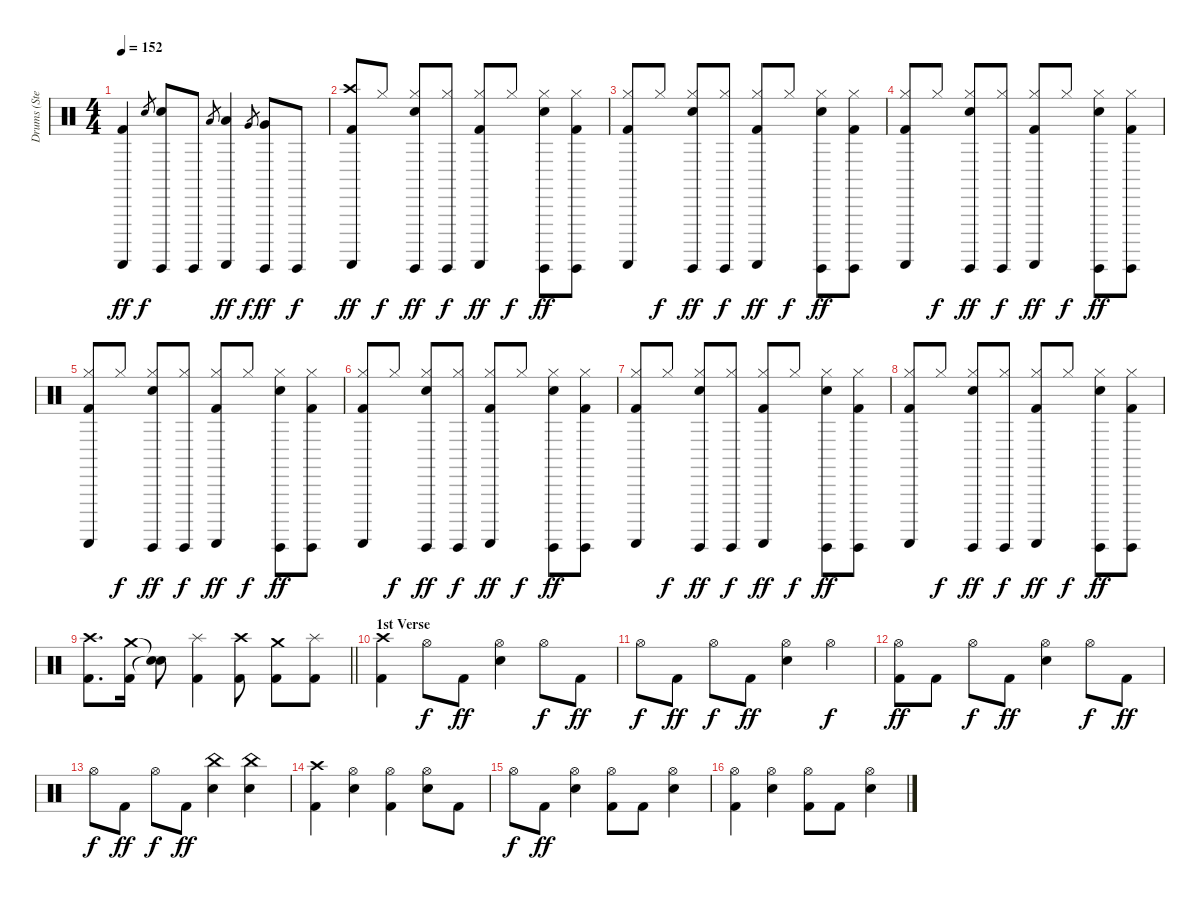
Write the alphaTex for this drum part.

\track ("Drums (Steven)" "Drums (Ste") {instrument percussion}
\staff {score}
\articulation defaults
\ts (4 4)
\tempo 152
\clef neutral
\ks c
("Guiro (scrap-return)" "Kick (hit) 2").4{dy ff} "Snare (hit) 2".8{gr dy f} ("Guiro (hit)" "Snare (hit) 2").8 "Guiro (hit)".8 "Low Tom (hit)".8{gr} ("Guiro (scrap-return)" "Low Tom (hit)").4{dy ff} "Very Low Tom (hit)".8{gr dy f} ("Guiro (hit)" "Very Low Tom (hit)").8{dy ff} "Guiro (hit)".8{dy f} |
("Crash high (hit)" "Guiro (scrap-return)" "Kick (hit) 2").8{dy ff} "Hi-Hat (closed)".8{dy f} ("Hi-Hat (closed)" "Guiro (hit)" "Snare (hit) 2").8{dy ff} ("Hi-Hat (closed)" "Guiro (hit)").8{dy f} ("Hi-Hat (closed)" "Guiro (scrap-return)" "Kick (hit) 2").8{dy ff} "Hi-Hat (closed)".8{dy f} ("Hi-Hat (closed)" "Guiro (hit)" "Snare (hit) 2").8{dy ff} ("Hi-Hat (closed)" "Guiro (hit)" "Kick (hit) 2").8 |
("Hi-Hat (closed)" "Guiro (scrap-return)" "Kick (hit) 2").8 "Hi-Hat (closed)".8{dy f} ("Hi-Hat (closed)" "Guiro (hit)" "Snare (hit) 2").8{dy ff} ("Hi-Hat (closed)" "Guiro (hit)").8{dy f} ("Hi-Hat (closed)" "Guiro (scrap-return)" "Kick (hit) 2").8{dy ff} "Hi-Hat (closed)".8{dy f} ("Hi-Hat (closed)" "Guiro (hit)" "Snare (hit) 2").8{dy ff} ("Hi-Hat (closed)" "Guiro (hit)" "Kick (hit) 2").8 |
("Hi-Hat (closed)" "Guiro (scrap-return)" "Kick (hit) 2").8 "Hi-Hat (closed)".8{dy f} ("Hi-Hat (closed)" "Guiro (hit)" "Snare (hit) 2").8{dy ff} ("Hi-Hat (closed)" "Guiro (hit)").8{dy f} ("Hi-Hat (closed)" "Guiro (scrap-return)" "Kick (hit) 2").8{dy ff} "Hi-Hat (closed)".8{dy f} ("Hi-Hat (closed)" "Guiro (hit)" "Snare (hit) 2").8{dy ff} ("Hi-Hat (closed)" "Guiro (hit)" "Kick (hit) 2").8 |
("Hi-Hat (closed)" "Guiro (scrap-return)" "Kick (hit) 2").8 "Hi-Hat (closed)".8{dy f} ("Hi-Hat (closed)" "Guiro (hit)" "Snare (hit) 2").8{dy ff} ("Hi-Hat (closed)" "Guiro (hit)").8{dy f} ("Hi-Hat (closed)" "Guiro (scrap-return)" "Kick (hit) 2").8{dy ff} "Hi-Hat (closed)".8{dy f} ("Hi-Hat (closed)" "Guiro (hit)" "Snare (hit) 2").8{dy ff} ("Hi-Hat (closed)" "Guiro (hit)" "Kick (hit) 2").8 |
("Hi-Hat (closed)" "Guiro (scrap-return)" "Kick (hit) 2").8 "Hi-Hat (closed)".8{dy f} ("Hi-Hat (closed)" "Guiro (hit)" "Snare (hit) 2").8{dy ff} ("Hi-Hat (closed)" "Guiro (hit)").8{dy f} ("Hi-Hat (closed)" "Guiro (scrap-return)" "Kick (hit) 2").8{dy ff} "Hi-Hat (closed)".8{dy f} ("Hi-Hat (closed)" "Guiro (hit)" "Snare (hit) 2").8{dy ff} ("Hi-Hat (closed)" "Guiro (hit)" "Kick (hit) 2").8 |
("Hi-Hat (closed)" "Guiro (scrap-return)" "Kick (hit) 2").8 "Hi-Hat (closed)".8{dy f} ("Hi-Hat (closed)" "Guiro (hit)" "Snare (hit) 2").8{dy ff} ("Hi-Hat (closed)" "Guiro (hit)").8{dy f} ("Hi-Hat (closed)" "Guiro (scrap-return)" "Kick (hit) 2").8{dy ff} "Hi-Hat (closed)".8{dy f} ("Hi-Hat (closed)" "Guiro (hit)" "Snare (hit) 2").8{dy ff} ("Hi-Hat (closed)" "Guiro (hit)" "Kick (hit) 2").8 |
("Hi-Hat (closed)" "Guiro (scrap-return)" "Kick (hit) 2").8 "Hi-Hat (closed)".8{dy f} ("Hi-Hat (closed)" "Guiro (hit)" "Snare (hit) 2").8{dy ff} ("Hi-Hat (closed)" "Guiro (hit)").8{dy f} ("Hi-Hat (closed)" "Guiro (scrap-return)" "Kick (hit) 2").8{dy ff} "Hi-Hat (closed)".8{dy f} ("Hi-Hat (closed)" "Guiro (hit)" "Snare (hit) 2").8{dy ff} ("Hi-Hat (closed)" "Guiro (hit)" "Kick (hit) 2").8 |
\barLineRight lightlight
("Crash high (hit)" "Kick (hit) 2").8{d} ("Crash medium (hit)" "Kick (hit) 2").16 ("Snare (hit)"{t} "Snare (hit)"{t}).8 ("Splash (hit)" "Kick (hit) 2").4 ("Crash high (hit)" "Kick (hit) 2").8 ("Crash medium (hit)" "Kick (hit) 2").8 ("Splash (hit)" "Kick (hit) 2").8 |
\section ("" "1st Verse")
("Crash high (hit)" "Kick (hit) 2").4 "Hi-Hat (open)".8{dy f} "Kick (hit) 2".8{dy ff} ("Hi-Hat (open)" "Snare (hit) 2").4 "Hi-Hat (open)".8{dy f} "Kick (hit) 2".8{dy ff} |
"Hi-Hat (open)".8{dy f} "Kick (hit) 2".8{dy ff} "Hi-Hat (open)".8{dy f} "Kick (hit) 2".8{dy ff} ("Hi-Hat (open)" "Snare (hit) 2").4 "Hi-Hat (open)".4{dy f} |
("Hi-Hat (open)" "Kick (hit) 2").8{dy ff} "Kick (hit) 2".8 "Hi-Hat (open)".8{dy f} "Kick (hit) 2".8{dy ff} ("Hi-Hat (open)" "Snare (hit) 2").4 "Hi-Hat (open)".8{dy f} "Kick (hit) 2".8{dy ff} |
"Hi-Hat (open)".8{dy f} "Kick (hit) 2".8{dy ff} "Hi-Hat (open)".8{dy f} "Kick (hit) 2".8{dy ff} ("China (hit)" "Snare (hit) 2").4 ("China (hit)" "Snare (hit) 2").4 |
("Crash high (hit)" "Kick (hit) 2").4 ("Hi-Hat (open)" "Snare (hit) 2").4 ("Hi-Hat (open)" "Kick (hit) 2").4 ("Hi-Hat (open)" "Snare (hit) 2").8 "Kick (hit) 2".8 |
"Hi-Hat (open)".8{dy f} "Kick (hit) 2".8{dy ff} ("Hi-Hat (open)" "Snare (hit) 2").4 ("Hi-Hat (open)" "Kick (hit) 2").8 "Kick (hit) 2".8 ("Hi-Hat (open)" "Snare (hit) 2").4 |
("Hi-Hat (open)" "Kick (hit) 2").4 ("Hi-Hat (open)" "Snare (hit) 2").4 ("Hi-Hat (open)" "Kick (hit) 2").8 "Kick (hit) 2".8 ("Hi-Hat (open)" "Snare (hit) 2").4
